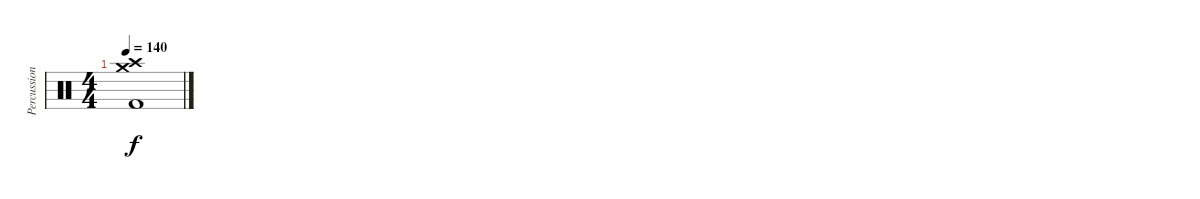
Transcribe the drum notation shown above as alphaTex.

\track ("Percussion" "Percussion") {instrument percussion}
\staff {score}
\articulation defaults
\ts (4 4)
\tempo 140
\clef neutral
\ks c
("Crash medium (hit)" "Crash high (hit)" "Kick (hit) 2").1{dy f}
